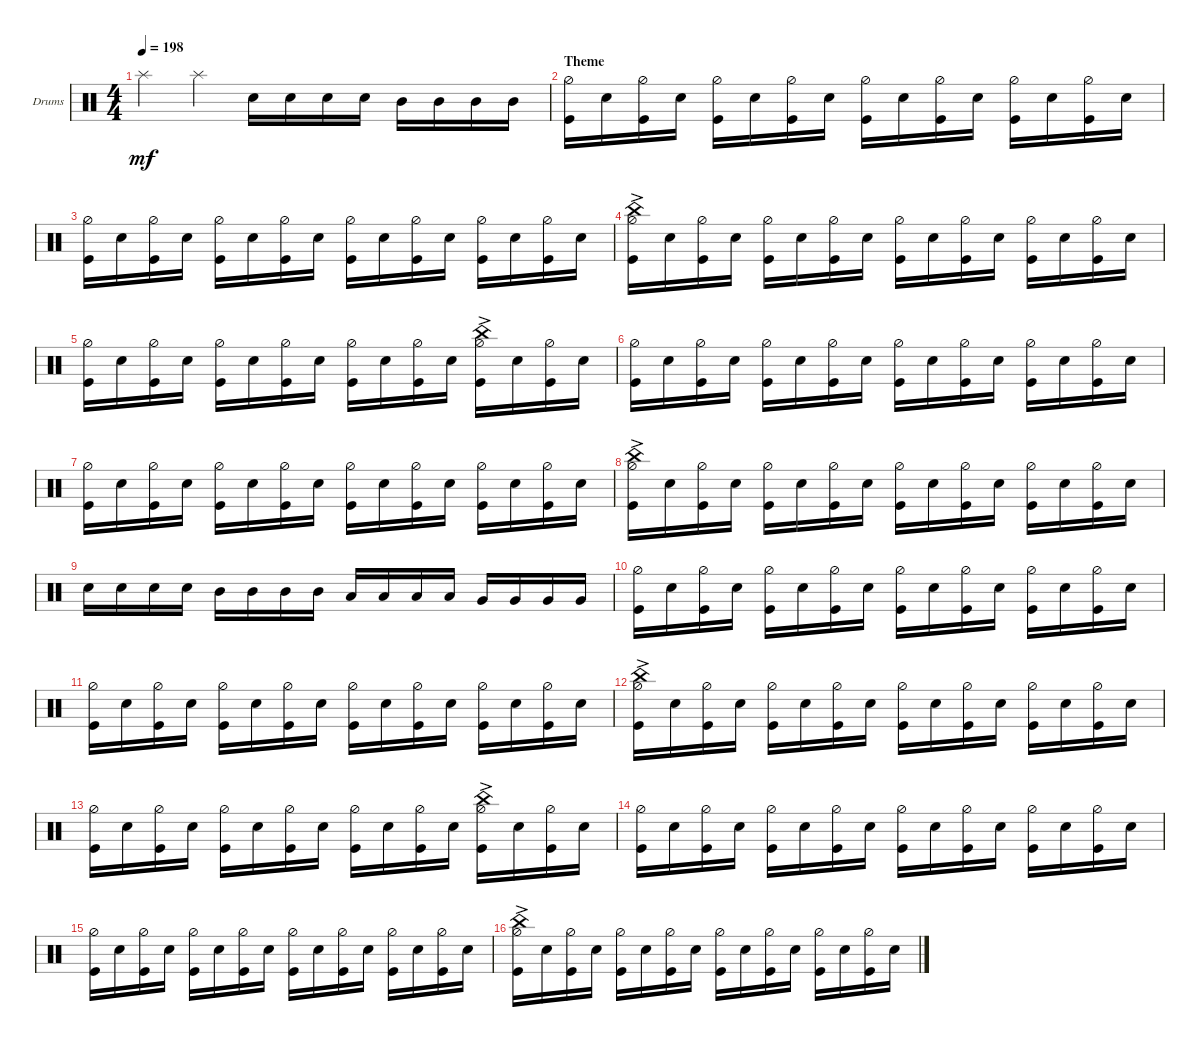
\bracketExtendMode groupsimilarinstruments
\firstSystemTrackNameOrientation horizontal
\otherSystemsTrackNameOrientation horizontal
\track ("Drumkit" "Drums") {instrument percussion}
\staff {score}
\articulation defaults
\ts (4 4)
\tempo 198
\clef neutral
\ks c "Splash (hit)".4{dy mf} "Splash (hit)".4 "Snare (hit) 2".16 "Snare (hit) 2".16 "Snare (hit) 2".16 "Snare (hit) 2".16 "Mid Tom (hit)".16 "Mid Tom (hit)".16 "Mid Tom (hit)".16 "Mid Tom (hit)".16
|
\section ("" "Theme")
("Hi-Hat (half)" "Kick (hit)").16 "Snare (hit) 2".16 ("Hi-Hat (half)" "Kick (hit)").16 "Snare (hit) 2".16 ("Hi-Hat (half)" "Kick (hit)").16 "Snare (hit) 2".16 ("Hi-Hat (half)" "Kick (hit)").16 "Snare (hit) 2".16 ("Hi-Hat (half)" "Kick (hit)").16 "Snare (hit) 2".16 ("Hi-Hat (half)" "Kick (hit)").16 "Snare (hit) 2".16 ("Hi-Hat (half)" "Kick (hit)").16 "Snare (hit) 2".16 ("Hi-Hat (half)" "Kick (hit)").16 "Snare (hit) 2".16 |
("Hi-Hat (half)" "Kick (hit)").16 "Snare (hit) 2".16 ("Hi-Hat (half)" "Kick (hit)").16 "Snare (hit) 2".16 ("Hi-Hat (half)" "Kick (hit)").16 "Snare (hit) 2".16 ("Hi-Hat (half)" "Kick (hit)").16 "Snare (hit) 2".16 ("Hi-Hat (half)" "Kick (hit)").16 "Snare (hit) 2".16 ("Hi-Hat (half)" "Kick (hit)").16 "Snare (hit) 2".16 ("Hi-Hat (half)" "Kick (hit)").16 "Snare (hit) 2".16 ("Hi-Hat (half)" "Kick (hit)").16 "Snare (hit) 2".16 |
("Hi-Hat (half)" "Kick (hit)" "China (hit)"{ac}).16 "Snare (hit) 2".16 ("Hi-Hat (half)" "Kick (hit)").16 "Snare (hit) 2".16 ("Hi-Hat (half)" "Kick (hit)").16 "Snare (hit) 2".16 ("Hi-Hat (half)" "Kick (hit)").16 "Snare (hit) 2".16 ("Hi-Hat (half)" "Kick (hit)").16 "Snare (hit) 2".16 ("Hi-Hat (half)" "Kick (hit)").16 "Snare (hit) 2".16 ("Hi-Hat (half)" "Kick (hit)").16 "Snare (hit) 2".16 ("Hi-Hat (half)" "Kick (hit)").16 "Snare (hit) 2".16 |
("Hi-Hat (half)" "Kick (hit)").16 "Snare (hit) 2".16 ("Hi-Hat (half)" "Kick (hit)").16 "Snare (hit) 2".16 ("Hi-Hat (half)" "Kick (hit)").16 "Snare (hit) 2".16 ("Hi-Hat (half)" "Kick (hit)").16 "Snare (hit) 2".16 ("Hi-Hat (half)" "Kick (hit)").16 "Snare (hit) 2".16 ("Hi-Hat (half)" "Kick (hit)").16 "Snare (hit) 2".16 ("Hi-Hat (half)" "Kick (hit)" "China (hit)"{ac}).16 "Snare (hit) 2".16 ("Hi-Hat (half)" "Kick (hit)").16 "Snare (hit) 2".16 |
("Hi-Hat (half)" "Kick (hit)").16 "Snare (hit) 2".16 ("Hi-Hat (half)" "Kick (hit)").16 "Snare (hit) 2".16 ("Hi-Hat (half)" "Kick (hit)").16 "Snare (hit) 2".16 ("Hi-Hat (half)" "Kick (hit)").16 "Snare (hit) 2".16 ("Hi-Hat (half)" "Kick (hit)").16 "Snare (hit) 2".16 ("Hi-Hat (half)" "Kick (hit)").16 "Snare (hit) 2".16 ("Hi-Hat (half)" "Kick (hit)").16 "Snare (hit) 2".16 ("Hi-Hat (half)" "Kick (hit)").16 "Snare (hit) 2".16 |
("Hi-Hat (half)" "Kick (hit)").16 "Snare (hit) 2".16 ("Hi-Hat (half)" "Kick (hit)").16 "Snare (hit) 2".16 ("Hi-Hat (half)" "Kick (hit)").16 "Snare (hit) 2".16 ("Hi-Hat (half)" "Kick (hit)").16 "Snare (hit) 2".16 ("Hi-Hat (half)" "Kick (hit)").16 "Snare (hit) 2".16 ("Hi-Hat (half)" "Kick (hit)").16 "Snare (hit) 2".16 ("Hi-Hat (half)" "Kick (hit)").16 "Snare (hit) 2".16 ("Hi-Hat (half)" "Kick (hit)").16 "Snare (hit) 2".16 |
("Hi-Hat (half)" "Kick (hit)" "China (hit)"{ac}).16 "Snare (hit) 2".16 ("Hi-Hat (half)" "Kick (hit)").16 "Snare (hit) 2".16 ("Hi-Hat (half)" "Kick (hit)").16 "Snare (hit) 2".16 ("Hi-Hat (half)" "Kick (hit)").16 "Snare (hit) 2".16 ("Hi-Hat (half)" "Kick (hit)").16 "Snare (hit) 2".16 ("Hi-Hat (half)" "Kick (hit)").16 "Snare (hit) 2".16 ("Hi-Hat (half)" "Kick (hit)").16 "Snare (hit) 2".16 ("Hi-Hat (half)" "Kick (hit)").16 "Snare (hit) 2".16 |
"Snare (hit) 2".16 "Snare (hit) 2".16 "Snare (hit) 2".16 "Snare (hit) 2".16 "Mid Tom (hit)".16 "Mid Tom (hit)".16 "Mid Tom (hit)".16 "Mid Tom (hit)".16 "Low Tom (hit)".16 "Low Tom (hit)".16 "Low Tom (hit)".16 "Low Tom (hit)".16 "Very Low Tom (hit)".16 "Very Low Tom (hit)".16 "Very Low Tom (hit)".16 "Very Low Tom (hit)".16 |
("Hi-Hat (half)" "Kick (hit)").16 "Snare (hit) 2".16 ("Hi-Hat (half)" "Kick (hit)").16 "Snare (hit) 2".16 ("Hi-Hat (half)" "Kick (hit)").16 "Snare (hit) 2".16 ("Hi-Hat (half)" "Kick (hit)").16 "Snare (hit) 2".16 ("Hi-Hat (half)" "Kick (hit)").16 "Snare (hit) 2".16 ("Hi-Hat (half)" "Kick (hit)").16 "Snare (hit) 2".16 ("Hi-Hat (half)" "Kick (hit)").16 "Snare (hit) 2".16 ("Hi-Hat (half)" "Kick (hit)").16 "Snare (hit) 2".16 |
("Hi-Hat (half)" "Kick (hit)").16 "Snare (hit) 2".16 ("Hi-Hat (half)" "Kick (hit)").16 "Snare (hit) 2".16 ("Hi-Hat (half)" "Kick (hit)").16 "Snare (hit) 2".16 ("Hi-Hat (half)" "Kick (hit)").16 "Snare (hit) 2".16 ("Hi-Hat (half)" "Kick (hit)").16 "Snare (hit) 2".16 ("Hi-Hat (half)" "Kick (hit)").16 "Snare (hit) 2".16 ("Hi-Hat (half)" "Kick (hit)").16 "Snare (hit) 2".16 ("Hi-Hat (half)" "Kick (hit)").16 "Snare (hit) 2".16 |
("Hi-Hat (half)" "Kick (hit)" "China (hit)"{ac}).16 "Snare (hit) 2".16 ("Hi-Hat (half)" "Kick (hit)").16 "Snare (hit) 2".16 ("Hi-Hat (half)" "Kick (hit)").16 "Snare (hit) 2".16 ("Hi-Hat (half)" "Kick (hit)").16 "Snare (hit) 2".16 ("Hi-Hat (half)" "Kick (hit)").16 "Snare (hit) 2".16 ("Hi-Hat (half)" "Kick (hit)").16 "Snare (hit) 2".16 ("Hi-Hat (half)" "Kick (hit)").16 "Snare (hit) 2".16 ("Hi-Hat (half)" "Kick (hit)").16 "Snare (hit) 2".16 |
("Hi-Hat (half)" "Kick (hit)").16 "Snare (hit) 2".16 ("Hi-Hat (half)" "Kick (hit)").16 "Snare (hit) 2".16 ("Hi-Hat (half)" "Kick (hit)").16 "Snare (hit) 2".16 ("Hi-Hat (half)" "Kick (hit)").16 "Snare (hit) 2".16 ("Hi-Hat (half)" "Kick (hit)").16 "Snare (hit) 2".16 ("Hi-Hat (half)" "Kick (hit)").16 "Snare (hit) 2".16 ("Hi-Hat (half)" "Kick (hit)" "China (hit)"{ac}).16 "Snare (hit) 2".16 ("Hi-Hat (half)" "Kick (hit)").16 "Snare (hit) 2".16 |
("Hi-Hat (half)" "Kick (hit)").16 "Snare (hit) 2".16 ("Hi-Hat (half)" "Kick (hit)").16 "Snare (hit) 2".16 ("Hi-Hat (half)" "Kick (hit)").16 "Snare (hit) 2".16 ("Hi-Hat (half)" "Kick (hit)").16 "Snare (hit) 2".16 ("Hi-Hat (half)" "Kick (hit)").16 "Snare (hit) 2".16 ("Hi-Hat (half)" "Kick (hit)").16 "Snare (hit) 2".16 ("Hi-Hat (half)" "Kick (hit)").16 "Snare (hit) 2".16 ("Hi-Hat (half)" "Kick (hit)").16 "Snare (hit) 2".16 |
("Hi-Hat (half)" "Kick (hit)").16 "Snare (hit) 2".16 ("Hi-Hat (half)" "Kick (hit)").16 "Snare (hit) 2".16 ("Hi-Hat (half)" "Kick (hit)").16 "Snare (hit) 2".16 ("Hi-Hat (half)" "Kick (hit)").16 "Snare (hit) 2".16 ("Hi-Hat (half)" "Kick (hit)").16 "Snare (hit) 2".16 ("Hi-Hat (half)" "Kick (hit)").16 "Snare (hit) 2".16 ("Hi-Hat (half)" "Kick (hit)").16 "Snare (hit) 2".16 ("Hi-Hat (half)" "Kick (hit)").16 "Snare (hit) 2".16 |
("Hi-Hat (half)" "Kick (hit)" "China (hit)"{ac}).16 "Snare (hit) 2".16 ("Hi-Hat (half)" "Kick (hit)").16 "Snare (hit) 2".16 ("Hi-Hat (half)" "Kick (hit)").16 "Snare (hit) 2".16 ("Hi-Hat (half)" "Kick (hit)").16 "Snare (hit) 2".16 ("Hi-Hat (half)" "Kick (hit)").16 "Snare (hit) 2".16 ("Hi-Hat (half)" "Kick (hit)").16 "Snare (hit) 2".16 ("Hi-Hat (half)" "Kick (hit)").16 "Snare (hit) 2".16 ("Hi-Hat (half)" "Kick (hit)").16 "Snare (hit) 2".16
